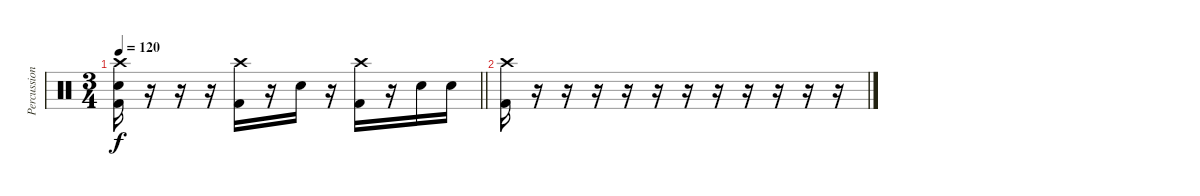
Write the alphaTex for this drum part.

\track ("Percussion" "Percussion") {instrument percussion}
\staff {score}
\articulation defaults
\ts (3 4)
\tempo 120
\clef neutral
\barLineRight lightlight
\ks c
("Kick (hit) 2" "Electric Snare (hit)" "Crash high (hit)").16{dy f} r.16 r.16 r.16 ("Kick (hit) 2" "Crash high (hit)").16 r.16 "Electric Snare (hit)".16 r.16 ("Kick (hit) 2" "Crash high (hit)").16 r.16 "Electric Snare (hit)".16 "Electric Snare (hit)".16 |
("Kick (hit) 2" "Crash high (hit)").16 r.16 r.16 r.16 r.16 r.16 r.16 r.16 r.16 r.16 r.16 r.16
